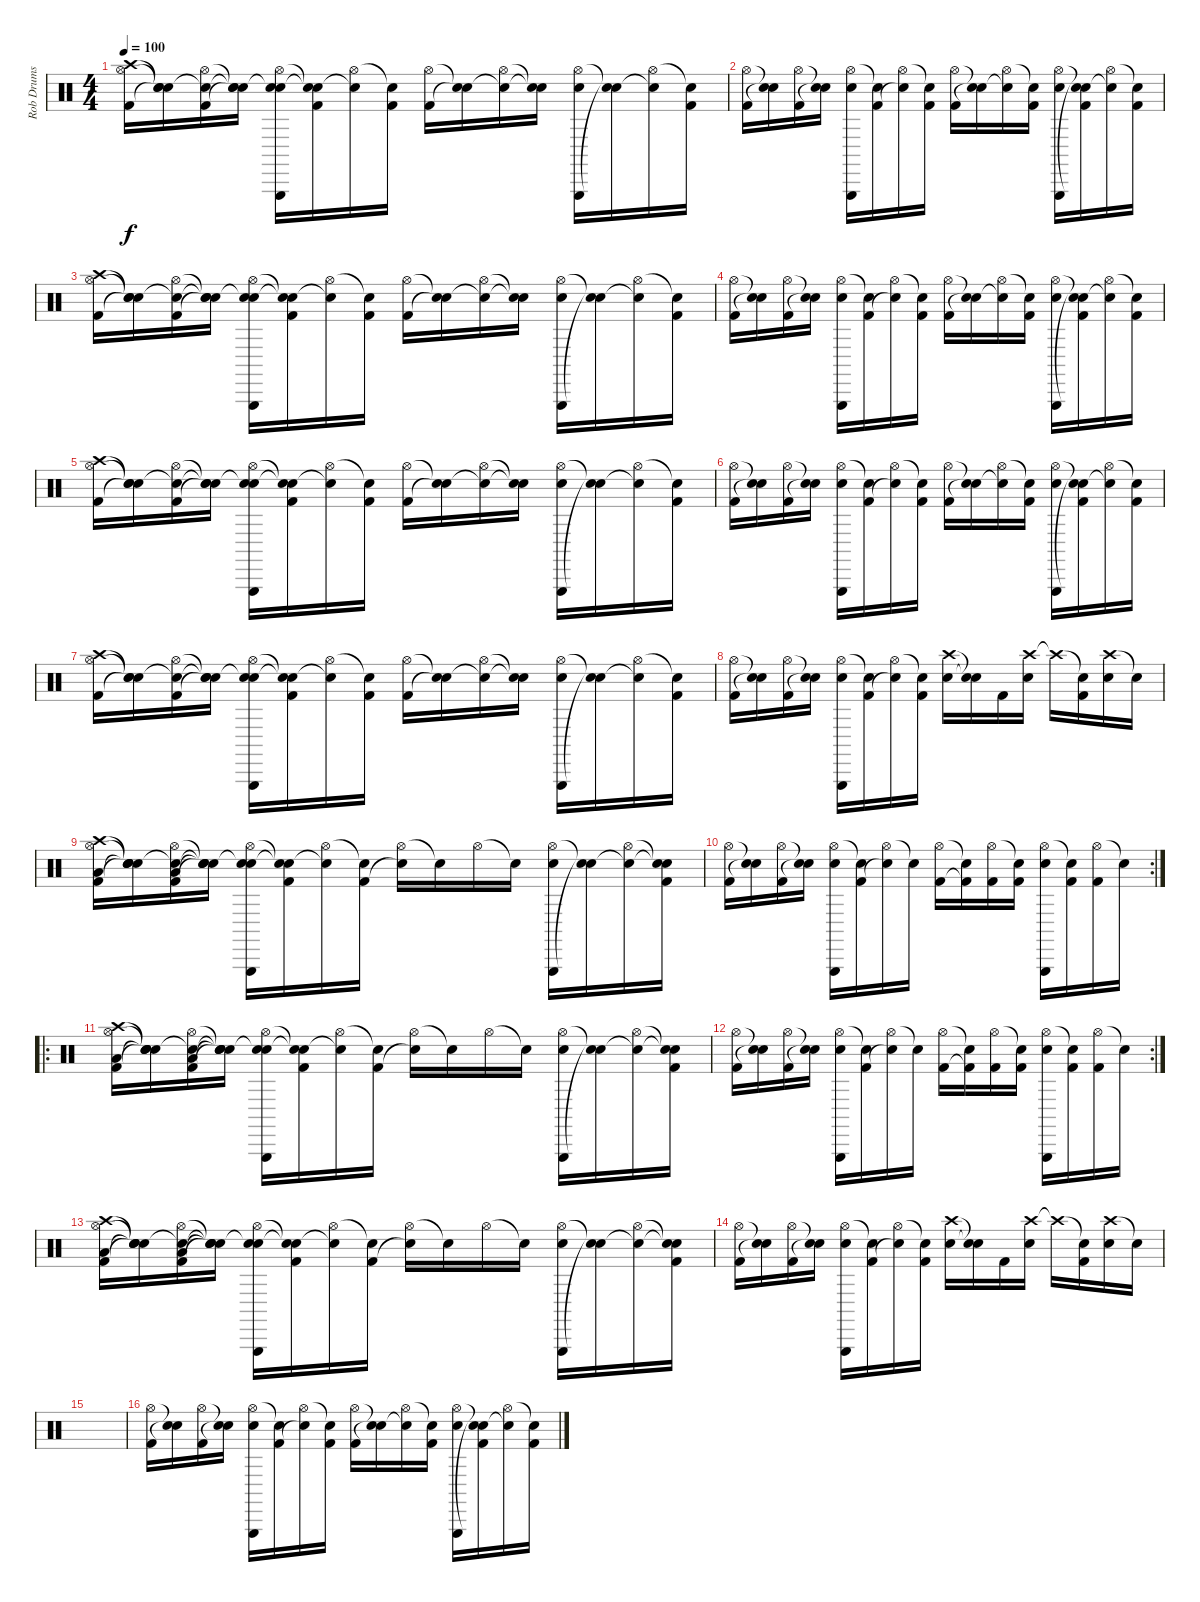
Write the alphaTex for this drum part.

\track ("Rob Drums" "Rob Drums") {instrument percussion}
\staff {score}
\articulation defaults
\ts (4 4)
\tempo 100
\clef neutral
\ks c
("Crash high (hit)" "Hi-Hat (open)" "Kick (hit) 2").16{dy f} ("Snare (hit)"{t} "Snare (hit)"{t} "Snare (hit)"{t}).16 ("Snare (hit)"{t} "Hi-Hat (open)" "Kick (hit) 2").16 ("Snare (hit)"{t} "Snare (hit)"{t} "Snare (hit)"{t}).16 ("Snare (hit)"{t} "Hi-Hat (open)" "Triangle (hit)" "Electric Snare (hit)").16 ("Snare (hit)"{t} "Snare (hit)"{t} "Kick (hit) 2").16 ("Hi-Hat (open)" "Snare (hit)"{t}).16 ("Snare (hit)"{t} "Kick (hit) 2").16 ("Hi-Hat (open)" "Kick (hit) 2").16 ("Snare (hit)"{t} "Snare (hit)"{t}).16 ("Hi-Hat (open)" "Snare (hit)"{t}).16 ("Snare (hit)"{t} "Snare (hit)"{t}).16 ("Hi-Hat (open)" "Triangle (hit)" "Electric Snare (hit)").16 ("Snare (hit)"{t} "Snare (hit)"{t}).16 ("Hi-Hat (open)" "Snare (hit)"{t}).16 ("Snare (hit)"{t} "Kick (hit) 2").16 |
("Hi-Hat (open)" "Kick (hit) 2").16 ("Snare (hit)"{t} "Snare (hit)"{t}).16 ("Hi-Hat (open)" "Kick (hit) 2").16 ("Snare (hit)"{t} "Snare (hit)"{t}).16 ("Hi-Hat (open)" "Triangle (hit)" "Electric Snare (hit)").16 ("Snare (hit)"{t} "Kick (hit) 2").16 ("Hi-Hat (open)" "Snare (hit)"{t}).16 ("Snare (hit)"{t} "Kick (hit) 2").16 ("Hi-Hat (open)" "Kick (hit) 2").16 ("Snare (hit)"{t} "Snare (hit)"{t}).16 ("Hi-Hat (open)" "Snare (hit)"{t}).16 ("Snare (hit)"{t} "Kick (hit) 2").16 ("Hi-Hat (open)" "Triangle (hit)" "Electric Snare (hit)").16 ("Snare (hit)"{t} "Snare (hit)"{t} "Kick (hit) 2").16 ("Hi-Hat (open)" "Snare (hit)"{t}).16 ("Snare (hit)"{t} "Kick (hit) 2").16 |
("Crash high (hit)" "Hi-Hat (open)" "Kick (hit) 2").16 ("Snare (hit)"{t} "Snare (hit)"{t} "Snare (hit)"{t}).16 ("Snare (hit)"{t} "Hi-Hat (open)" "Kick (hit) 2").16 ("Snare (hit)"{t} "Snare (hit)"{t} "Snare (hit)"{t}).16 ("Snare (hit)"{t} "Hi-Hat (open)" "Triangle (hit)" "Electric Snare (hit)").16 ("Snare (hit)"{t} "Snare (hit)"{t} "Kick (hit) 2").16 ("Hi-Hat (open)" "Snare (hit)"{t}).16 ("Snare (hit)"{t} "Kick (hit) 2").16 ("Hi-Hat (open)" "Kick (hit) 2").16 ("Snare (hit)"{t} "Snare (hit)"{t}).16 ("Hi-Hat (open)" "Snare (hit)"{t}).16 ("Snare (hit)"{t} "Snare (hit)"{t}).16 ("Hi-Hat (open)" "Triangle (hit)" "Electric Snare (hit)").16 ("Snare (hit)"{t} "Snare (hit)"{t}).16 ("Hi-Hat (open)" "Snare (hit)"{t}).16 ("Snare (hit)"{t} "Kick (hit) 2").16 |
("Hi-Hat (open)" "Kick (hit) 2").16 ("Snare (hit)"{t} "Snare (hit)"{t}).16 ("Hi-Hat (open)" "Kick (hit) 2").16 ("Snare (hit)"{t} "Snare (hit)"{t}).16 ("Hi-Hat (open)" "Triangle (hit)" "Electric Snare (hit)").16 ("Snare (hit)"{t} "Kick (hit) 2").16 ("Hi-Hat (open)" "Snare (hit)"{t}).16 ("Snare (hit)"{t} "Kick (hit) 2").16 ("Hi-Hat (open)" "Kick (hit) 2").16 ("Snare (hit)"{t} "Snare (hit)"{t}).16 ("Hi-Hat (open)" "Snare (hit)"{t}).16 ("Snare (hit)"{t} "Kick (hit) 2").16 ("Hi-Hat (open)" "Triangle (hit)" "Electric Snare (hit)").16 ("Snare (hit)"{t} "Snare (hit)"{t} "Kick (hit) 2").16 ("Hi-Hat (open)" "Snare (hit)"{t}).16 ("Snare (hit)"{t} "Kick (hit) 2").16 |
("Crash high (hit)" "Hi-Hat (open)" "Kick (hit) 2").16 ("Snare (hit)"{t} "Snare (hit)"{t} "Snare (hit)"{t}).16 ("Snare (hit)"{t} "Hi-Hat (open)" "Kick (hit) 2").16 ("Snare (hit)"{t} "Snare (hit)"{t} "Snare (hit)"{t}).16 ("Snare (hit)"{t} "Hi-Hat (open)" "Triangle (hit)" "Electric Snare (hit)").16 ("Snare (hit)"{t} "Snare (hit)"{t} "Kick (hit) 2").16 ("Hi-Hat (open)" "Snare (hit)"{t}).16 ("Snare (hit)"{t} "Kick (hit) 2").16 ("Hi-Hat (open)" "Kick (hit) 2").16 ("Snare (hit)"{t} "Snare (hit)"{t}).16 ("Hi-Hat (open)" "Snare (hit)"{t}).16 ("Snare (hit)"{t} "Snare (hit)"{t}).16 ("Hi-Hat (open)" "Triangle (hit)" "Electric Snare (hit)").16 ("Snare (hit)"{t} "Snare (hit)"{t}).16 ("Hi-Hat (open)" "Snare (hit)"{t}).16 ("Snare (hit)"{t} "Kick (hit) 2").16 |
("Hi-Hat (open)" "Kick (hit) 2").16 ("Snare (hit)"{t} "Snare (hit)"{t}).16 ("Hi-Hat (open)" "Kick (hit) 2").16 ("Snare (hit)"{t} "Snare (hit)"{t}).16 ("Hi-Hat (open)" "Triangle (hit)" "Electric Snare (hit)").16 ("Snare (hit)"{t} "Kick (hit) 2").16 ("Hi-Hat (open)" "Snare (hit)"{t}).16 ("Snare (hit)"{t} "Kick (hit) 2").16 ("Hi-Hat (open)" "Kick (hit) 2").16 ("Snare (hit)"{t} "Snare (hit)"{t}).16 ("Hi-Hat (open)" "Snare (hit)"{t}).16 ("Snare (hit)"{t} "Kick (hit) 2").16 ("Hi-Hat (open)" "Triangle (hit)" "Electric Snare (hit)").16 ("Snare (hit)"{t} "Snare (hit)"{t} "Kick (hit) 2").16 ("Hi-Hat (open)" "Snare (hit)"{t}).16 ("Snare (hit)"{t} "Kick (hit) 2").16 |
("Crash high (hit)" "Hi-Hat (open)" "Kick (hit) 2").16 ("Snare (hit)"{t} "Snare (hit)"{t} "Snare (hit)"{t}).16 ("Snare (hit)"{t} "Hi-Hat (open)" "Kick (hit) 2").16 ("Snare (hit)"{t} "Snare (hit)"{t} "Snare (hit)"{t}).16 ("Snare (hit)"{t} "Hi-Hat (open)" "Triangle (hit)" "Electric Snare (hit)").16 ("Snare (hit)"{t} "Snare (hit)"{t} "Kick (hit) 2").16 ("Hi-Hat (open)" "Snare (hit)"{t}).16 ("Snare (hit)"{t} "Kick (hit) 2").16 ("Hi-Hat (open)" "Kick (hit) 2").16 ("Snare (hit)"{t} "Snare (hit)"{t}).16 ("Hi-Hat (open)" "Snare (hit)"{t}).16 ("Snare (hit)"{t} "Snare (hit)"{t}).16 ("Hi-Hat (open)" "Triangle (hit)" "Electric Snare (hit)").16 ("Snare (hit)"{t} "Snare (hit)"{t}).16 ("Hi-Hat (open)" "Snare (hit)"{t}).16 ("Snare (hit)"{t} "Kick (hit) 2").16 |
("Hi-Hat (open)" "Kick (hit) 2").16 ("Snare (hit)"{t} "Snare (hit)"{t}).16 ("Hi-Hat (open)" "Kick (hit) 2").16 ("Snare (hit)"{t} "Snare (hit)"{t}).16 ("Hi-Hat (open)" "Triangle (hit)" "Electric Snare (hit)").16 ("Snare (hit)"{t} "Kick (hit) 2").16 ("Hi-Hat (open)" "Snare (hit)"{t}).16 ("Snare (hit)"{t} "Kick (hit) 2").16 ("Crash high (hit)" "Electric Snare (hit)").16 ("Snare (hit)"{t} "Snare (hit)"{t}).16 "Kick (hit) 2".16 ("Crash high (hit)" "Electric Snare (hit)").16 "Crash high (hit)"{t}.16 ("Snare (hit)"{t} "Kick (hit) 2").16 ("Crash high (hit)" "Electric Snare (hit)").16 "Snare (hit)"{t}.16 |
("Crash high (hit)" "Hi-Hat (open)" "Low Tom (hit)" "Kick (hit) 2").16 ("Snare (hit)"{t} "Snare (hit)"{t} "Snare (hit)"{t} "Snare (hit)"{t}).16 ("Snare (hit)"{t} "Hi-Hat (open)" "Low Tom (hit)" "Kick (hit) 2").16 ("Snare (hit)"{t} "Snare (hit)"{t} "Snare (hit)"{t} "Snare (hit)"{t}).16 ("Snare (hit)"{t} "Hi-Hat (open)" "Triangle (hit)" "Electric Snare (hit)").16 ("Snare (hit)"{t} "Snare (hit)"{t} "Kick (hit) 2").16 ("Hi-Hat (open)" "Snare (hit)"{t}).16 ("Snare (hit)"{t} "Kick (hit) 2").16 ("Hi-Hat (open)" "Snare (hit)"{t}).16 "Snare (hit)"{t}.16 "Hi-Hat (open)".16 "Snare (hit)"{t}.16 ("Hi-Hat (open)" "Triangle (hit)" "Electric Snare (hit)").16 ("Snare (hit)"{t} "Snare (hit)"{t}).16 ("Hi-Hat (open)" "Snare (hit)"{t}).16 ("Snare (hit)"{t} "Snare (hit)"{t} "Kick (hit) 2").16 |
\rc 2
("Hi-Hat (open)" "Kick (hit) 2").16 ("Snare (hit)"{t} "Snare (hit)"{t}).16 ("Hi-Hat (open)" "Kick (hit) 2").16 ("Snare (hit)"{t} "Snare (hit)"{t}).16 ("Hi-Hat (open)" "Triangle (hit)" "Electric Snare (hit)").16 ("Snare (hit)"{t} "Kick (hit) 2").16 ("Hi-Hat (open)" "Snare (hit)"{t}).16 "Snare (hit)"{t}.16 ("Hi-Hat (open)" "Kick (hit) 2").16 ("Snare (hit)"{t} "Kick (hit) 2"{t}).16 ("Hi-Hat (open)" "Kick (hit) 2").16 ("Snare (hit)"{t} "Kick (hit) 2").16 ("Hi-Hat (open)" "Triangle (hit)" "Electric Snare (hit)").16 ("Snare (hit)"{t} "Kick (hit) 2").16 ("Hi-Hat (open)" "Kick (hit) 2").16 "Snare (hit)"{t}.16 |
\ro
("Crash high (hit)" "Hi-Hat (open)" "Low Tom (hit)" "Kick (hit) 2").16 ("Snare (hit)"{t} "Snare (hit)"{t} "Snare (hit)"{t} "Snare (hit)"{t}).16 ("Snare (hit)"{t} "Hi-Hat (open)" "Low Tom (hit)" "Kick (hit) 2").16 ("Snare (hit)"{t} "Snare (hit)"{t} "Snare (hit)"{t} "Snare (hit)"{t}).16 ("Snare (hit)"{t} "Hi-Hat (open)" "Triangle (hit)" "Electric Snare (hit)").16 ("Snare (hit)"{t} "Snare (hit)"{t} "Kick (hit) 2").16 ("Hi-Hat (open)" "Snare (hit)"{t}).16 ("Snare (hit)"{t} "Kick (hit) 2").16 ("Hi-Hat (open)" "Snare (hit)"{t}).16 "Snare (hit)"{t}.16 "Hi-Hat (open)".16 "Snare (hit)"{t}.16 ("Hi-Hat (open)" "Triangle (hit)" "Electric Snare (hit)").16 ("Snare (hit)"{t} "Snare (hit)"{t}).16 ("Hi-Hat (open)" "Snare (hit)"{t}).16 ("Snare (hit)"{t} "Snare (hit)"{t} "Kick (hit) 2").16 |
\rc 2
("Hi-Hat (open)" "Kick (hit) 2").16 ("Snare (hit)"{t} "Snare (hit)"{t}).16 ("Hi-Hat (open)" "Kick (hit) 2").16 ("Snare (hit)"{t} "Snare (hit)"{t}).16 ("Hi-Hat (open)" "Triangle (hit)" "Electric Snare (hit)").16 ("Snare (hit)"{t} "Kick (hit) 2").16 ("Hi-Hat (open)" "Snare (hit)"{t}).16 "Snare (hit)"{t}.16 ("Hi-Hat (open)" "Kick (hit) 2").16 ("Snare (hit)"{t} "Kick (hit) 2"{t}).16 ("Hi-Hat (open)" "Kick (hit) 2").16 ("Snare (hit)"{t} "Kick (hit) 2").16 ("Hi-Hat (open)" "Triangle (hit)" "Electric Snare (hit)").16 ("Snare (hit)"{t} "Kick (hit) 2").16 ("Hi-Hat (open)" "Kick (hit) 2").16 "Snare (hit)"{t}.16 |
("Crash high (hit)" "Hi-Hat (open)" "Low Tom (hit)" "Kick (hit) 2").16 ("Snare (hit)"{t} "Snare (hit)"{t} "Snare (hit)"{t} "Snare (hit)"{t}).16 ("Snare (hit)"{t} "Hi-Hat (open)" "Low Tom (hit)" "Kick (hit) 2").16 ("Snare (hit)"{t} "Snare (hit)"{t} "Snare (hit)"{t} "Snare (hit)"{t}).16 ("Snare (hit)"{t} "Hi-Hat (open)" "Triangle (hit)" "Electric Snare (hit)").16 ("Snare (hit)"{t} "Snare (hit)"{t} "Kick (hit) 2").16 ("Hi-Hat (open)" "Snare (hit)"{t}).16 ("Snare (hit)"{t} "Kick (hit) 2").16 ("Hi-Hat (open)" "Snare (hit)"{t}).16 "Snare (hit)"{t}.16 "Hi-Hat (open)".16 "Snare (hit)"{t}.16 ("Hi-Hat (open)" "Triangle (hit)" "Electric Snare (hit)").16 ("Snare (hit)"{t} "Snare (hit)"{t}).16 ("Hi-Hat (open)" "Snare (hit)"{t}).16 ("Snare (hit)"{t} "Snare (hit)"{t} "Kick (hit) 2").16 |
("Hi-Hat (open)" "Kick (hit) 2").16 ("Snare (hit)"{t} "Snare (hit)"{t}).16 ("Hi-Hat (open)" "Kick (hit) 2").16 ("Snare (hit)"{t} "Snare (hit)"{t}).16 ("Hi-Hat (open)" "Triangle (hit)" "Electric Snare (hit)").16 ("Snare (hit)"{t} "Kick (hit) 2").16 ("Hi-Hat (open)" "Snare (hit)"{t}).16 ("Snare (hit)"{t} "Kick (hit) 2").16 ("Crash high (hit)" "Electric Snare (hit)").16 ("Snare (hit)"{t} "Snare (hit)"{t}).16 "Kick (hit) 2".16 ("Crash high (hit)" "Electric Snare (hit)").16 "Crash high (hit)"{t}.16 ("Snare (hit)"{t} "Kick (hit) 2").16 ("Crash high (hit)" "Electric Snare (hit)").16 "Snare (hit)"{t}.16 |
|
("Hi-Hat (open)" "Kick (hit) 2").16 ("Snare (hit)"{t} "Snare (hit)"{t}).16 ("Hi-Hat (open)" "Kick (hit) 2").16 ("Snare (hit)"{t} "Snare (hit)"{t}).16 ("Hi-Hat (open)" "Triangle (hit)" "Electric Snare (hit)").16 ("Snare (hit)"{t} "Kick (hit) 2").16 ("Hi-Hat (open)" "Snare (hit)"{t}).16 ("Snare (hit)"{t} "Kick (hit) 2").16 ("Hi-Hat (open)" "Kick (hit) 2").16 ("Snare (hit)"{t} "Snare (hit)"{t}).16 ("Hi-Hat (open)" "Snare (hit)"{t}).16 ("Snare (hit)"{t} "Kick (hit) 2").16 ("Hi-Hat (open)" "Triangle (hit)" "Electric Snare (hit)").16 ("Snare (hit)"{t} "Snare (hit)"{t} "Kick (hit) 2").16 ("Hi-Hat (open)" "Snare (hit)"{t}).16 ("Snare (hit)"{t} "Kick (hit) 2").16
